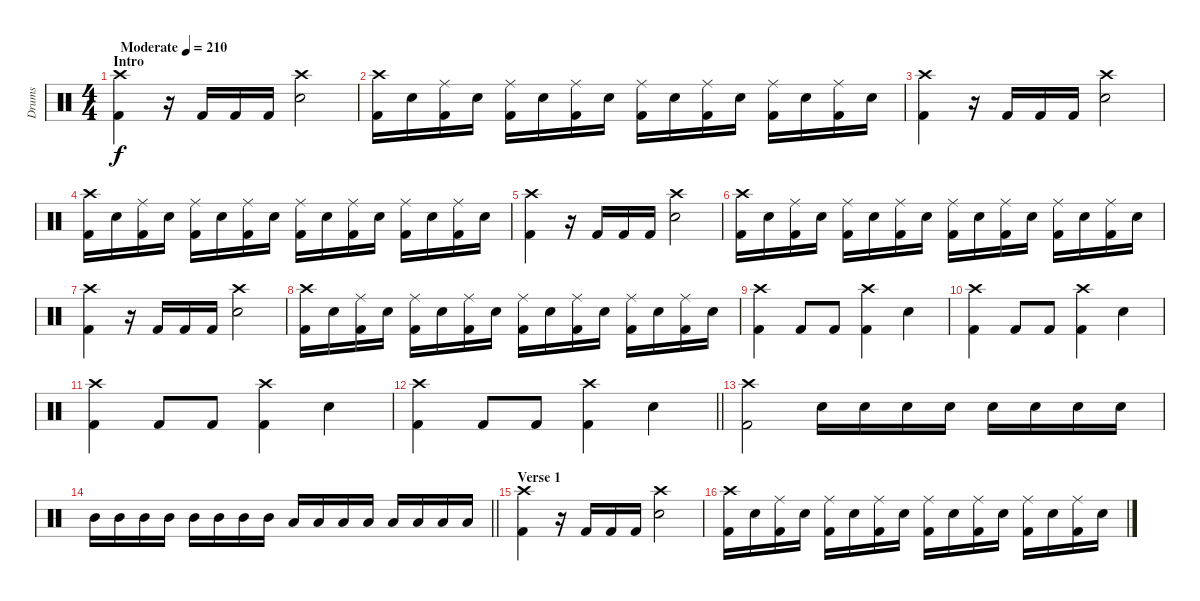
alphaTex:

\track ("Drums" "Drums") {instrument percussion}
\staff {score}
\articulation defaults
\ts (4 4)
\section ("" "Intro")
\tempo (210 "Moderate")
\clef neutral
\ks c
("Crash high (hit)" "Kick (hit) 2").4{dy f} r.16 "Kick (hit) 2".16 "Kick (hit) 2".16 "Kick (hit) 2".16 ("Crash high (hit)" "Electric Snare (hit)").2 |
("Crash high (hit)" "Kick (hit) 2").16 "Electric Snare (hit)".16 ("Ride (middle)" "Kick (hit) 2").16 "Electric Snare (hit)".16 ("Ride (middle)" "Kick (hit) 2").16 "Electric Snare (hit)".16 ("Ride (middle)" "Kick (hit) 2").16 "Electric Snare (hit)".16 ("Ride (middle)" "Kick (hit) 2").16 "Electric Snare (hit)".16 ("Ride (middle)" "Kick (hit) 2").16 "Electric Snare (hit)".16 ("Ride (middle)" "Kick (hit) 2").16 "Electric Snare (hit)".16 ("Ride (middle)" "Kick (hit) 2").16 "Electric Snare (hit)".16 |
("Crash high (hit)" "Kick (hit) 2").4 r.16 "Kick (hit) 2".16 "Kick (hit) 2".16 "Kick (hit) 2".16 ("Crash high (hit)" "Electric Snare (hit)").2 |
("Crash high (hit)" "Kick (hit) 2").16 "Electric Snare (hit)".16 ("Ride (middle)" "Kick (hit) 2").16 "Electric Snare (hit)".16 ("Ride (middle)" "Kick (hit) 2").16 "Electric Snare (hit)".16 ("Ride (middle)" "Kick (hit) 2").16 "Electric Snare (hit)".16 ("Ride (middle)" "Kick (hit) 2").16 "Electric Snare (hit)".16 ("Ride (middle)" "Kick (hit) 2").16 "Electric Snare (hit)".16 ("Ride (middle)" "Kick (hit) 2").16 "Electric Snare (hit)".16 ("Ride (middle)" "Kick (hit) 2").16 "Electric Snare (hit)".16 |
("Crash high (hit)" "Kick (hit) 2").4 r.16 "Kick (hit) 2".16 "Kick (hit) 2".16 "Kick (hit) 2".16 ("Crash high (hit)" "Electric Snare (hit)").2 |
("Crash high (hit)" "Kick (hit) 2").16 "Electric Snare (hit)".16 ("Ride (middle)" "Kick (hit) 2").16 "Electric Snare (hit)".16 ("Ride (middle)" "Kick (hit) 2").16 "Electric Snare (hit)".16 ("Ride (middle)" "Kick (hit) 2").16 "Electric Snare (hit)".16 ("Ride (middle)" "Kick (hit) 2").16 "Electric Snare (hit)".16 ("Ride (middle)" "Kick (hit) 2").16 "Electric Snare (hit)".16 ("Ride (middle)" "Kick (hit) 2").16 "Electric Snare (hit)".16 ("Ride (middle)" "Kick (hit) 2").16 "Electric Snare (hit)".16 |
("Crash high (hit)" "Kick (hit) 2").4 r.16 "Kick (hit) 2".16 "Kick (hit) 2".16 "Kick (hit) 2".16 ("Crash high (hit)" "Electric Snare (hit)").2 |
("Crash high (hit)" "Kick (hit) 2").16 "Electric Snare (hit)".16 ("Ride (middle)" "Kick (hit) 2").16 "Electric Snare (hit)".16 ("Ride (middle)" "Kick (hit) 2").16 "Electric Snare (hit)".16 ("Ride (middle)" "Kick (hit) 2").16 "Electric Snare (hit)".16 ("Ride (middle)" "Kick (hit) 2").16 "Electric Snare (hit)".16 ("Ride (middle)" "Kick (hit) 2").16 "Electric Snare (hit)".16 ("Ride (middle)" "Kick (hit) 2").16 "Electric Snare (hit)".16 ("Ride (middle)" "Kick (hit) 2").16 "Electric Snare (hit)".16 |
("Crash high (hit)" "Kick (hit) 2").4 "Kick (hit) 2".8 "Kick (hit) 2".8 ("Crash high (hit)" "Kick (hit) 2").4 "Electric Snare (hit)".4 |
("Crash high (hit)" "Kick (hit) 2").4 "Kick (hit) 2".8 "Kick (hit) 2".8 ("Crash high (hit)" "Kick (hit) 2").4 "Electric Snare (hit)".4 |
("Crash high (hit)" "Kick (hit) 2").4 "Kick (hit) 2".8 "Kick (hit) 2".8 ("Crash high (hit)" "Kick (hit) 2").4 "Electric Snare (hit)".4 |
\barLineRight lightlight
("Crash high (hit)" "Kick (hit) 2").4 "Kick (hit) 2".8 "Kick (hit) 2".8 ("Crash high (hit)" "Kick (hit) 2").4 "Electric Snare (hit)".4 |
("Crash high (hit)" "Kick (hit) 2").2 "Electric Snare (hit)".16 "Electric Snare (hit)".16 "Electric Snare (hit)".16 "Electric Snare (hit)".16 "Electric Snare (hit)".16 "Electric Snare (hit)".16 "Electric Snare (hit)".16 "Electric Snare (hit)".16 |
\barLineRight lightlight "Mid Tom (hit)".16 "Mid Tom (hit)".16 "Mid Tom (hit)".16 "Mid Tom (hit)".16 "Mid Tom (hit)".16 "Mid Tom (hit)".16 "Mid Tom (hit)".16 "Mid Tom (hit)".16 "Low Floor Tom (hit)".16 "Low Floor Tom (hit)".16 "Low Floor Tom (hit)".16 "Low Floor Tom (hit)".16 "Low Floor Tom (hit)".16 "Low Floor Tom (hit)".16 "Low Floor Tom (hit)".16 "Low Floor Tom (hit)".16
|
\section ("" "Verse 1")
("Crash high (hit)" "Kick (hit) 2").4 r.16 "Kick (hit) 2".16 "Kick (hit) 2".16 "Kick (hit) 2".16 ("Crash high (hit)" "Electric Snare (hit)").2 |
("Crash high (hit)" "Kick (hit) 2").16 "Electric Snare (hit)".16 ("Ride (middle)" "Kick (hit) 2").16 "Electric Snare (hit)".16 ("Ride (middle)" "Kick (hit) 2").16 "Electric Snare (hit)".16 ("Ride (middle)" "Kick (hit) 2").16 "Electric Snare (hit)".16 ("Ride (middle)" "Kick (hit) 2").16 "Electric Snare (hit)".16 ("Ride (middle)" "Kick (hit) 2").16 "Electric Snare (hit)".16 ("Ride (middle)" "Kick (hit) 2").16 "Electric Snare (hit)".16 ("Ride (middle)" "Kick (hit) 2").16 "Electric Snare (hit)".16
